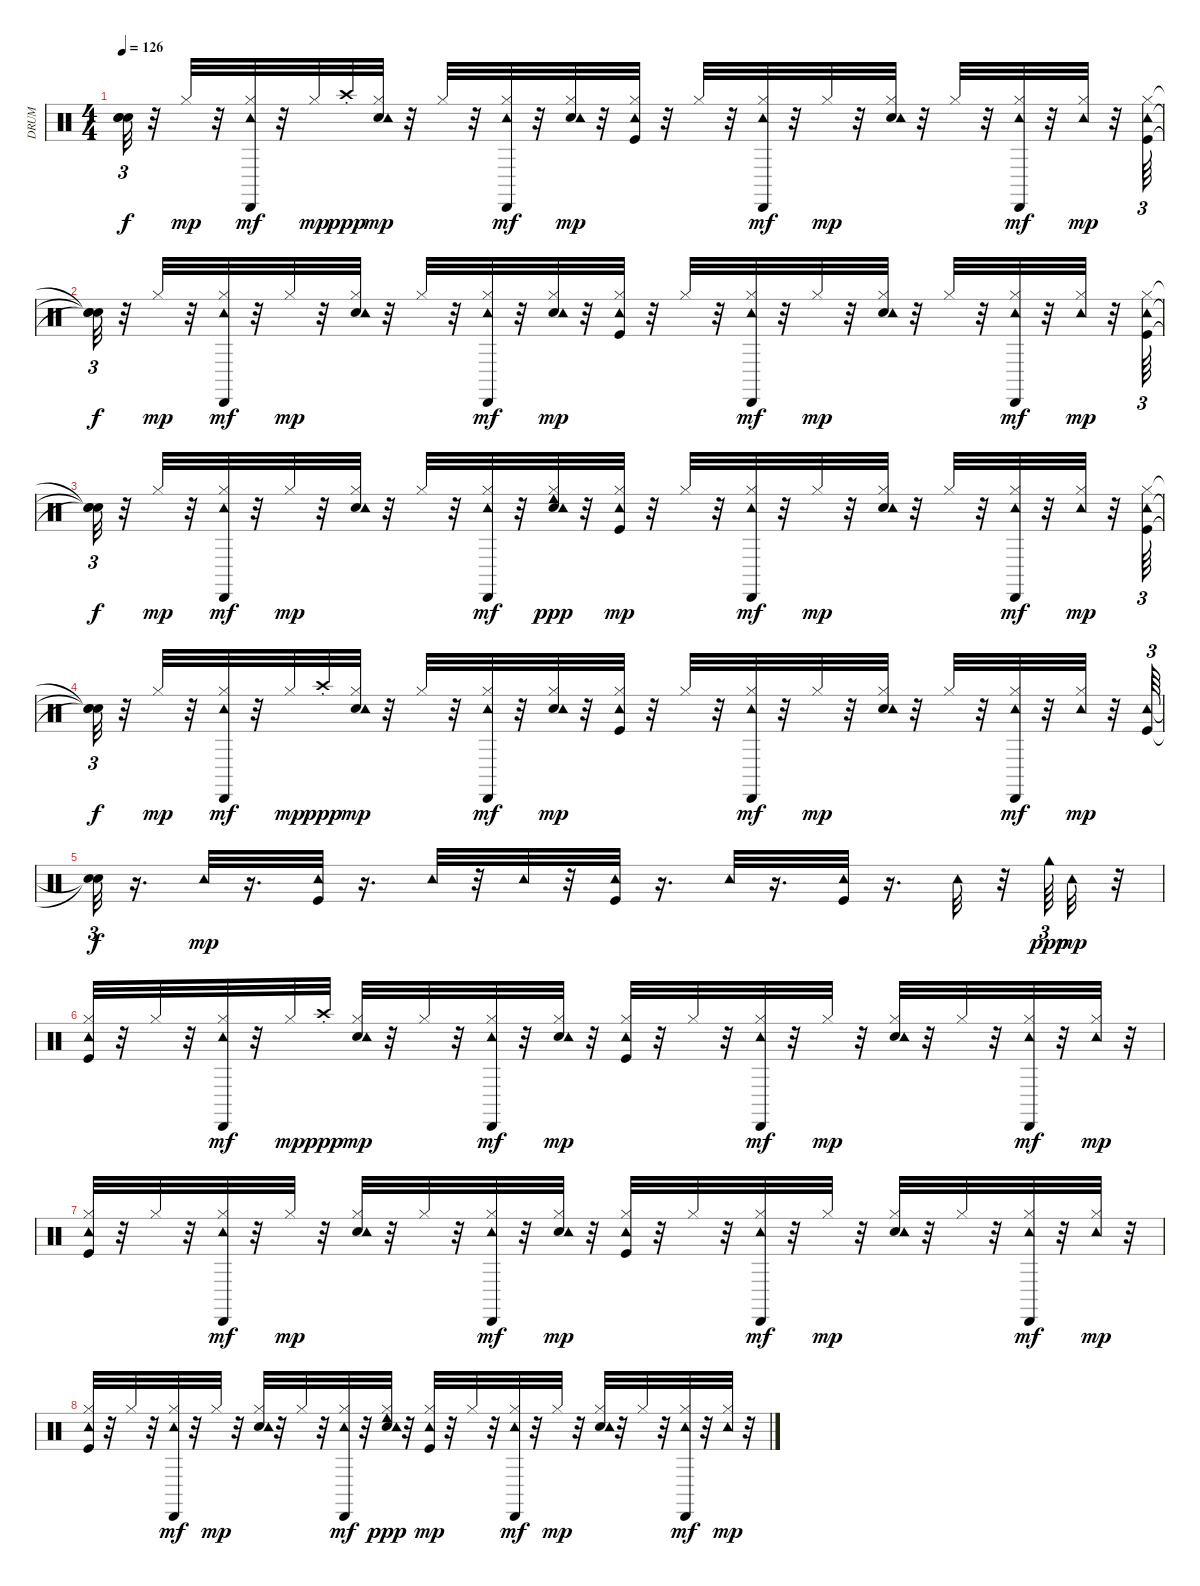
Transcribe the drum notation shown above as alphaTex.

\track ("DRUM" "DRUM") {instrument percussion}
\staff {score}
\articulation defaults
\ts (4 4)
\tempo 126
\clef neutral
\ks c
("Snare (hit)"{t} "Snare (hit)"{t} "Snare (hit)"{t}).32{tu (3 2) dy f} r.32 "Hi-Hat (closed)".32{dy mp} r.32 ("Hi-Hat (closed)" "Tambourine (hit)" "Cabasa (hit)").32{dy mf} r.32 "Hi-Hat (closed)".32{dy mp} "Crash high (choke)".32{dy ppp} ("Snare (hit) 2" "Hi-Hat (closed)" "Tambourine (hit)").32{dy mp} r.32 "Hi-Hat (closed)".32 r.32 ("Hi-Hat (closed)" "Tambourine (hit)" "Cabasa (hit)").32{dy mf} r.32 ("Snare (hit) 2" "Hi-Hat (closed)" "Tambourine (hit)").32{dy mp} r.32 ("Kick (hit)" "Hi-Hat (closed)" "Tambourine (hit)").32 r.32 "Hi-Hat (closed)".32 r.32 ("Hi-Hat (closed)" "Tambourine (hit)" "Cabasa (hit)").32{dy mf} r.32 "Hi-Hat (closed)".32{dy mp} r.32 ("Snare (hit) 2" "Hi-Hat (closed)" "Tambourine (hit)").32 r.32 "Hi-Hat (closed)".32 r.32 ("Hi-Hat (closed)" "Tambourine (hit)" "Cabasa (hit)").32{dy mf} r.32 ("Hi-Hat (closed)" "Tambourine (hit)").32{dy mp} r.32 ("Kick (hit)" "Hi-Hat (closed)" "Tambourine (hit)").64{tu (3 2)} |
("Snare (hit)"{t} "Snare (hit)"{t} "Snare (hit)"{t}).32{tu (3 2) dy f} r.32 "Hi-Hat (closed)".32{dy mp} r.32 ("Hi-Hat (closed)" "Tambourine (hit)" "Cabasa (hit)").32{dy mf} r.32 "Hi-Hat (closed)".32{dy mp} r.32 ("Snare (hit) 2" "Hi-Hat (closed)" "Tambourine (hit)").32 r.32 "Hi-Hat (closed)".32 r.32 ("Hi-Hat (closed)" "Tambourine (hit)" "Cabasa (hit)").32{dy mf} r.32 ("Snare (hit) 2" "Hi-Hat (closed)" "Tambourine (hit)").32{dy mp} r.32 ("Kick (hit)" "Hi-Hat (closed)" "Tambourine (hit)").32 r.32 "Hi-Hat (closed)".32 r.32 ("Hi-Hat (closed)" "Tambourine (hit)" "Cabasa (hit)").32{dy mf} r.32 "Hi-Hat (closed)".32{dy mp} r.32 ("Snare (hit) 2" "Hi-Hat (closed)" "Tambourine (hit)").32 r.32 "Hi-Hat (closed)".32 r.32 ("Hi-Hat (closed)" "Tambourine (hit)" "Cabasa (hit)").32{dy mf} r.32 ("Hi-Hat (closed)" "Tambourine (hit)").32{dy mp} r.32 ("Kick (hit)" "Hi-Hat (closed)" "Tambourine (hit)").64{tu (3 2)} |
("Snare (hit)"{t} "Snare (hit)"{t} "Snare (hit)"{t}).32{tu (3 2) dy f} r.32 "Hi-Hat (closed)".32{dy mp} r.32 ("Hi-Hat (closed)" "Tambourine (hit)" "Cabasa (hit)").32{dy mf} r.32 "Hi-Hat (closed)".32{dy mp} r.32 ("Snare (hit) 2" "Hi-Hat (closed)" "Tambourine (hit)").32 r.32 "Hi-Hat (closed)".32 r.32 ("Hi-Hat (closed)" "Tambourine (hit)" "Cabasa (hit)").32{dy mf} r.32 ("Snare (hit) 2" "Hi-Hat (closed)" "Tambourine (hit)" "Cowbell low (hit)").32{dy ppp} r.32 ("Kick (hit)" "Hi-Hat (closed)" "Tambourine (hit)").32{dy mp} r.32 "Hi-Hat (closed)".32 r.32 ("Hi-Hat (closed)" "Tambourine (hit)" "Cabasa (hit)").32{dy mf} r.32 "Hi-Hat (closed)".32{dy mp} r.32 ("Snare (hit) 2" "Hi-Hat (closed)" "Tambourine (hit)").32 r.32 "Hi-Hat (closed)".32 r.32 ("Hi-Hat (closed)" "Tambourine (hit)" "Cabasa (hit)").32{dy mf} r.32 ("Hi-Hat (closed)" "Tambourine (hit)").32{dy mp} r.32 ("Kick (hit)" "Hi-Hat (closed)" "Tambourine (hit)").64{tu (3 2)} |
("Snare (hit)"{t} "Snare (hit)"{t} "Snare (hit)"{t}).32{tu (3 2) dy f} r.32 "Hi-Hat (closed)".32{dy mp} r.32 ("Hi-Hat (closed)" "Tambourine (hit)" "Cabasa (hit)").32{dy mf} r.32 "Hi-Hat (closed)".32{dy mp} "Crash high (choke)".32{dy ppp} ("Snare (hit) 2" "Hi-Hat (closed)" "Tambourine (hit)").32{dy mp} r.32 "Hi-Hat (closed)".32 r.32 ("Hi-Hat (closed)" "Tambourine (hit)" "Cabasa (hit)").32{dy mf} r.32 ("Snare (hit) 2" "Hi-Hat (closed)" "Tambourine (hit)").32{dy mp} r.32 ("Kick (hit)" "Hi-Hat (closed)" "Tambourine (hit)").32 r.32 "Hi-Hat (closed)".32 r.32 ("Hi-Hat (closed)" "Tambourine (hit)" "Cabasa (hit)").32{dy mf} r.32 "Hi-Hat (closed)".32{dy mp} r.32 ("Snare (hit) 2" "Hi-Hat (closed)" "Tambourine (hit)").32 r.32 "Hi-Hat (closed)".32 r.32 ("Hi-Hat (closed)" "Tambourine (hit)" "Cabasa (hit)").32{dy mf} r.32 ("Hi-Hat (closed)" "Tambourine (hit)").32{dy mp} r.32 ("Kick (hit)" "Tambourine (hit)").64{tu (3 2)} |
("Snare (hit)"{t} "Snare (hit)"{t}).32{tu (3 2) dy f} r.16{d} "Tambourine (hit)".32{dy mp} r.16{d} ("Kick (hit)" "Tambourine (hit)").32 r.16{d} "Tambourine (hit)".32 r.32 "Tambourine (hit)".32 r.32 ("Kick (hit)" "Tambourine (hit)").32 r.16{d} "Tambourine (hit)".32 r.16{d} ("Kick (hit)" "Tambourine (hit)").32 r.16{d} "Tambourine (hit)".32 r.32 "Cowbell high (hit)".64{tu (3 2) dy ppp} "Tambourine (hit)".32{dy mp} r.32 |
("Kick (hit)" "Hi-Hat (closed)" "Tambourine (hit)").32 r.32 "Hi-Hat (closed)".32 r.32 ("Hi-Hat (closed)" "Tambourine (hit)" "Cabasa (hit)").32{dy mf} r.32 "Hi-Hat (closed)".32{dy mp} "Crash high (choke)".32{dy ppp} ("Snare (hit) 2" "Hi-Hat (closed)" "Tambourine (hit)").32{dy mp} r.32 "Hi-Hat (closed)".32 r.32 ("Hi-Hat (closed)" "Tambourine (hit)" "Cabasa (hit)").32{dy mf} r.32 ("Snare (hit) 2" "Hi-Hat (closed)" "Tambourine (hit)").32{dy mp} r.32 ("Kick (hit)" "Hi-Hat (closed)" "Tambourine (hit)").32 r.32 "Hi-Hat (closed)".32 r.32 ("Hi-Hat (closed)" "Tambourine (hit)" "Cabasa (hit)").32{dy mf} r.32 "Hi-Hat (closed)".32{dy mp} r.32 ("Snare (hit) 2" "Hi-Hat (closed)" "Tambourine (hit)").32 r.32 "Hi-Hat (closed)".32 r.32 ("Hi-Hat (closed)" "Tambourine (hit)" "Cabasa (hit)").32{dy mf} r.32 ("Hi-Hat (closed)" "Tambourine (hit)").32{dy mp} r.32 |
("Kick (hit)" "Hi-Hat (closed)" "Tambourine (hit)").32 r.32 "Hi-Hat (closed)".32 r.32 ("Hi-Hat (closed)" "Tambourine (hit)" "Cabasa (hit)").32{dy mf} r.32 "Hi-Hat (closed)".32{dy mp} r.32 ("Snare (hit) 2" "Hi-Hat (closed)" "Tambourine (hit)").32 r.32 "Hi-Hat (closed)".32 r.32 ("Hi-Hat (closed)" "Tambourine (hit)" "Cabasa (hit)").32{dy mf} r.32 ("Snare (hit) 2" "Hi-Hat (closed)" "Tambourine (hit)").32{dy mp} r.32 ("Kick (hit)" "Hi-Hat (closed)" "Tambourine (hit)").32 r.32 "Hi-Hat (closed)".32 r.32 ("Hi-Hat (closed)" "Tambourine (hit)" "Cabasa (hit)").32{dy mf} r.32 "Hi-Hat (closed)".32{dy mp} r.32 ("Snare (hit) 2" "Hi-Hat (closed)" "Tambourine (hit)").32 r.32 "Hi-Hat (closed)".32 r.32 ("Hi-Hat (closed)" "Tambourine (hit)" "Cabasa (hit)").32{dy mf} r.32 ("Hi-Hat (closed)" "Tambourine (hit)").32{dy mp} r.32 |
("Kick (hit)" "Hi-Hat (closed)" "Tambourine (hit)").32 r.32 "Hi-Hat (closed)".32 r.32 ("Hi-Hat (closed)" "Tambourine (hit)" "Cabasa (hit)").32{dy mf} r.32 "Hi-Hat (closed)".32{dy mp} r.32 ("Snare (hit) 2" "Hi-Hat (closed)" "Tambourine (hit)").32 r.32 "Hi-Hat (closed)".32 r.32 ("Hi-Hat (closed)" "Tambourine (hit)" "Cabasa (hit)").32{dy mf} r.32 ("Snare (hit) 2" "Hi-Hat (closed)" "Tambourine (hit)" "Cowbell low (hit)").32{dy ppp} r.32 ("Kick (hit)" "Hi-Hat (closed)" "Tambourine (hit)").32{dy mp} r.32 "Hi-Hat (closed)".32 r.32 ("Hi-Hat (closed)" "Tambourine (hit)" "Cabasa (hit)").32{dy mf} r.32 "Hi-Hat (closed)".32{dy mp} r.32 ("Snare (hit) 2" "Hi-Hat (closed)" "Tambourine (hit)").32 r.32 "Hi-Hat (closed)".32 r.32 ("Hi-Hat (closed)" "Tambourine (hit)" "Cabasa (hit)").32{dy mf} r.32 ("Hi-Hat (closed)" "Tambourine (hit)").32{dy mp} r.32
